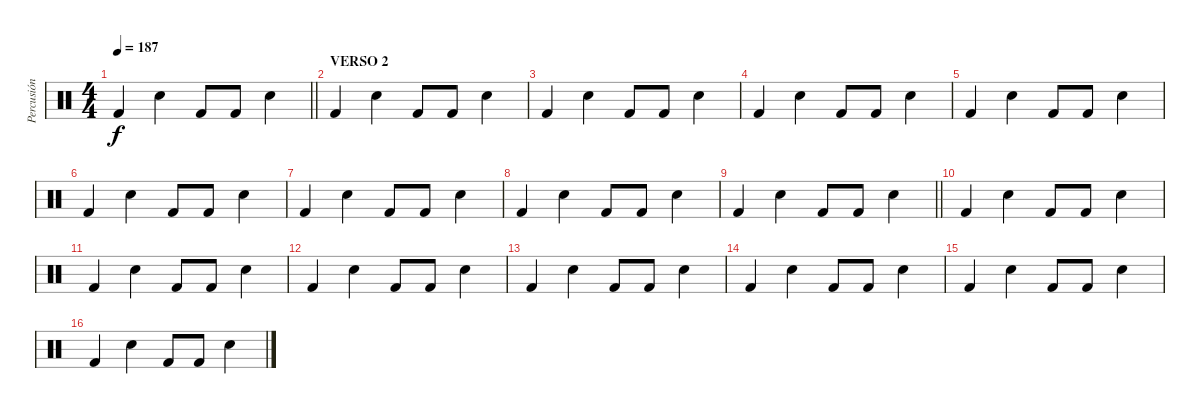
\track ("Percusión" "Percusión") {instrument percussion}
\staff {score}
\articulation defaults
\ts (4 4)
\tempo 187
\clef neutral
\barLineRight lightlight
\ks c "Kick (hit) 2".4{dy f} "Snare (hit) 2".4 "Kick (hit) 2".8 "Kick (hit) 2".8 "Snare (hit) 2".4
|
\section ("" "VERSO 2")
"Kick (hit) 2".4 "Snare (hit) 2".4 "Kick (hit) 2".8 "Kick (hit) 2".8 "Snare (hit) 2".4 |
"Kick (hit) 2".4 "Snare (hit) 2".4 "Kick (hit) 2".8 "Kick (hit) 2".8 "Snare (hit) 2".4 |
"Kick (hit) 2".4 "Snare (hit) 2".4 "Kick (hit) 2".8 "Kick (hit) 2".8 "Snare (hit) 2".4 |
"Kick (hit) 2".4 "Snare (hit) 2".4 "Kick (hit) 2".8 "Kick (hit) 2".8 "Snare (hit) 2".4 |
"Kick (hit) 2".4 "Snare (hit) 2".4 "Kick (hit) 2".8 "Kick (hit) 2".8 "Snare (hit) 2".4 |
"Kick (hit) 2".4 "Snare (hit) 2".4 "Kick (hit) 2".8 "Kick (hit) 2".8 "Snare (hit) 2".4 |
"Kick (hit) 2".4 "Snare (hit) 2".4 "Kick (hit) 2".8 "Kick (hit) 2".8 "Snare (hit) 2".4 |
\barLineRight lightlight "Kick (hit) 2".4 "Snare (hit) 2".4 "Kick (hit) 2".8 "Kick (hit) 2".8 "Snare (hit) 2".4
|
"Kick (hit) 2".4 "Snare (hit) 2".4 "Kick (hit) 2".8 "Kick (hit) 2".8 "Snare (hit) 2".4 |
"Kick (hit) 2".4 "Snare (hit) 2".4 "Kick (hit) 2".8 "Kick (hit) 2".8 "Snare (hit) 2".4 |
"Kick (hit) 2".4 "Snare (hit) 2".4 "Kick (hit) 2".8 "Kick (hit) 2".8 "Snare (hit) 2".4 |
"Kick (hit) 2".4 "Snare (hit) 2".4 "Kick (hit) 2".8 "Kick (hit) 2".8 "Snare (hit) 2".4 |
"Kick (hit) 2".4 "Snare (hit) 2".4 "Kick (hit) 2".8 "Kick (hit) 2".8 "Snare (hit) 2".4 |
"Kick (hit) 2".4 "Snare (hit) 2".4 "Kick (hit) 2".8 "Kick (hit) 2".8 "Snare (hit) 2".4 |
"Kick (hit) 2".4 "Snare (hit) 2".4 "Kick (hit) 2".8 "Kick (hit) 2".8 "Snare (hit) 2".4
